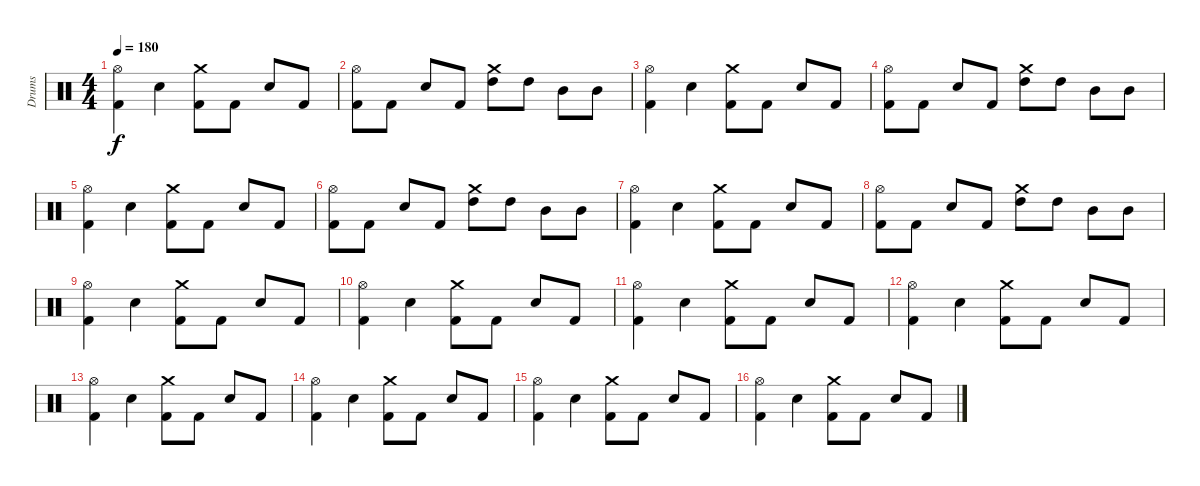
\track ("Drums" "Drums") {instrument percussion}
\staff {score}
\articulation defaults
\ts (4 4)
\tempo 180
\clef neutral
\ks c
("Hi-Hat (open)" "Kick (hit) 2").4{dy f} "Electric Snare (hit)".4 ("Crash medium (hit)" "Kick (hit) 2").8 "Kick (hit) 2".8 "Electric Snare (hit)".8 "Kick (hit) 2".8 |
("Kick (hit) 2" "Hi-Hat (open)").8 "Kick (hit) 2".8 "Electric Snare (hit)".8 "Kick (hit) 2".8 ("Crash medium (hit)" "High Tom (hit)").8 "High Tom (hit)".8 "Mid Tom (hit)".8 "Mid Tom (hit)".8 |
("Hi-Hat (open)" "Kick (hit) 2").4 "Electric Snare (hit)".4 ("Crash medium (hit)" "Kick (hit) 2").8 "Kick (hit) 2".8 "Electric Snare (hit)".8 "Kick (hit) 2".8 |
("Kick (hit) 2" "Hi-Hat (open)").8 "Kick (hit) 2".8 "Electric Snare (hit)".8 "Kick (hit) 2".8 ("Crash medium (hit)" "High Tom (hit)").8 "High Tom (hit)".8 "Mid Tom (hit)".8 "Mid Tom (hit)".8 |
("Hi-Hat (open)" "Kick (hit) 2").4 "Electric Snare (hit)".4 ("Crash medium (hit)" "Kick (hit) 2").8 "Kick (hit) 2".8 "Electric Snare (hit)".8 "Kick (hit) 2".8 |
("Kick (hit) 2" "Hi-Hat (open)").8 "Kick (hit) 2".8 "Electric Snare (hit)".8 "Kick (hit) 2".8 ("Crash medium (hit)" "High Tom (hit)").8 "High Tom (hit)".8 "Mid Tom (hit)".8 "Mid Tom (hit)".8 |
("Hi-Hat (open)" "Kick (hit) 2").4 "Electric Snare (hit)".4 ("Crash medium (hit)" "Kick (hit) 2").8 "Kick (hit) 2".8 "Electric Snare (hit)".8 "Kick (hit) 2".8 |
("Kick (hit) 2" "Hi-Hat (open)").8 "Kick (hit) 2".8 "Electric Snare (hit)".8 "Kick (hit) 2".8 ("Crash medium (hit)" "High Tom (hit)").8 "High Tom (hit)".8 "Mid Tom (hit)".8 "Mid Tom (hit)".8 |
("Hi-Hat (open)" "Kick (hit) 2").4 "Electric Snare (hit)".4 ("Crash medium (hit)" "Kick (hit) 2").8 "Kick (hit) 2".8 "Electric Snare (hit)".8 "Kick (hit) 2".8 |
("Hi-Hat (open)" "Kick (hit) 2").4 "Electric Snare (hit)".4 ("Crash medium (hit)" "Kick (hit) 2").8 "Kick (hit) 2".8 "Electric Snare (hit)".8 "Kick (hit) 2".8 |
("Hi-Hat (open)" "Kick (hit) 2").4 "Electric Snare (hit)".4 ("Crash medium (hit)" "Kick (hit) 2").8 "Kick (hit) 2".8 "Electric Snare (hit)".8 "Kick (hit) 2".8 |
("Hi-Hat (open)" "Kick (hit) 2").4 "Electric Snare (hit)".4 ("Crash medium (hit)" "Kick (hit) 2").8 "Kick (hit) 2".8 "Electric Snare (hit)".8 "Kick (hit) 2".8 |
("Hi-Hat (open)" "Kick (hit) 2").4 "Electric Snare (hit)".4 ("Crash medium (hit)" "Kick (hit) 2").8 "Kick (hit) 2".8 "Electric Snare (hit)".8 "Kick (hit) 2".8 |
("Hi-Hat (open)" "Kick (hit) 2").4 "Electric Snare (hit)".4 ("Crash medium (hit)" "Kick (hit) 2").8 "Kick (hit) 2".8 "Electric Snare (hit)".8 "Kick (hit) 2".8 |
("Hi-Hat (open)" "Kick (hit) 2").4 "Electric Snare (hit)".4 ("Crash medium (hit)" "Kick (hit) 2").8 "Kick (hit) 2".8 "Electric Snare (hit)".8 "Kick (hit) 2".8 |
("Hi-Hat (open)" "Kick (hit) 2").4 "Electric Snare (hit)".4 ("Crash medium (hit)" "Kick (hit) 2").8 "Kick (hit) 2".8 "Electric Snare (hit)".8 "Kick (hit) 2".8
